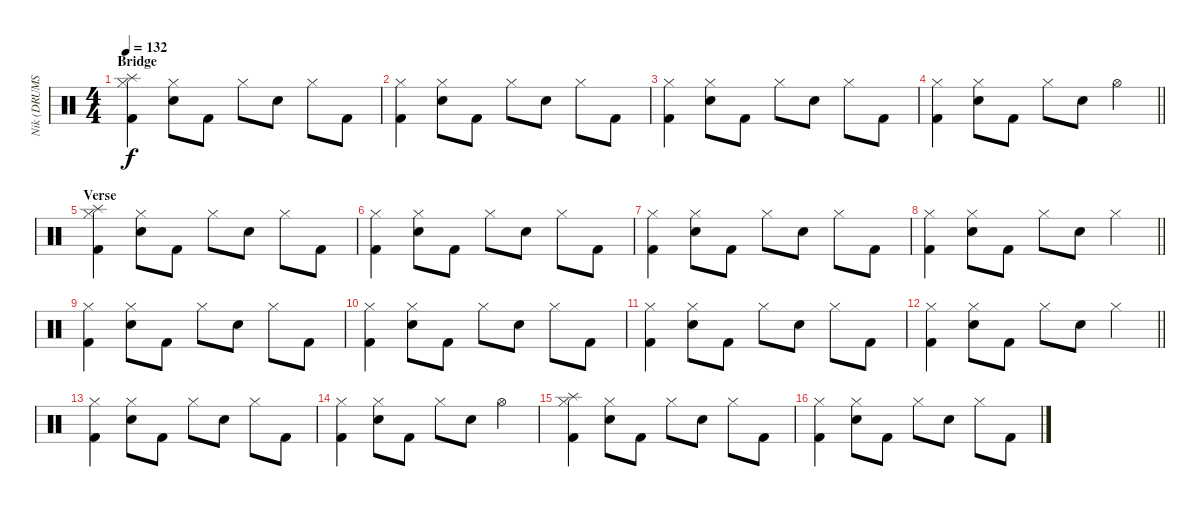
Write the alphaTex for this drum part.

\track ("Nik (DRUMS)" "Nik (DRUMS") {instrument percussion}
\staff {score}
\articulation defaults
\ts (4 4)
\section ("" "Bridge")
\tempo 132
\clef neutral
\ks c
("Splash (hit)" "Hi-Hat (closed)" "Kick (hit) 2").4{dy f} ("Hi-Hat (closed)" "Electric Snare (hit)").8 "Kick (hit) 2".8 "Hi-Hat (closed)".8 "Electric Snare (hit)".8 "Hi-Hat (closed)".8 "Kick (hit) 2".8 |
("Hi-Hat (closed)" "Kick (hit) 2").4 ("Hi-Hat (closed)" "Electric Snare (hit)").8 "Kick (hit) 2".8 "Hi-Hat (closed)".8 "Electric Snare (hit)".8 "Hi-Hat (closed)".8 "Kick (hit) 2".8 |
("Hi-Hat (closed)" "Kick (hit) 2").4 ("Hi-Hat (closed)" "Electric Snare (hit)").8 "Kick (hit) 2".8 "Hi-Hat (closed)".8 "Electric Snare (hit)".8 "Hi-Hat (closed)".8 "Kick (hit) 2".8 |
\barLineRight lightlight
("Hi-Hat (closed)" "Kick (hit) 2").4 ("Hi-Hat (closed)" "Electric Snare (hit)").8 "Kick (hit) 2".8 "Hi-Hat (closed)".8 "Electric Snare (hit)".8 "Hi-Hat (open)".4 |
\section ("" "Verse")
("Splash (hit)" "Hi-Hat (closed)" "Kick (hit) 2").4 ("Hi-Hat (closed)" "Electric Snare (hit)").8 "Kick (hit) 2".8 "Hi-Hat (closed)".8 "Electric Snare (hit)".8 "Hi-Hat (closed)".8 "Kick (hit) 2".8 |
("Hi-Hat (closed)" "Kick (hit) 2").4 ("Hi-Hat (closed)" "Electric Snare (hit)").8 "Kick (hit) 2".8 "Hi-Hat (closed)".8 "Electric Snare (hit)".8 "Hi-Hat (closed)".8 "Kick (hit) 2".8 |
("Hi-Hat (closed)" "Kick (hit) 2").4 ("Hi-Hat (closed)" "Electric Snare (hit)").8 "Kick (hit) 2".8 "Hi-Hat (closed)".8 "Electric Snare (hit)".8 "Hi-Hat (closed)".8 "Kick (hit) 2".8 |
\barLineRight lightlight
("Hi-Hat (closed)" "Kick (hit) 2").4 ("Hi-Hat (closed)" "Electric Snare (hit)").8 "Kick (hit) 2".8 "Hi-Hat (closed)".8 "Electric Snare (hit)".8 "Hi-Hat (closed)".4 |
("Hi-Hat (closed)" "Kick (hit) 2").4 ("Hi-Hat (closed)" "Electric Snare (hit)").8 "Kick (hit) 2".8 "Hi-Hat (closed)".8 "Electric Snare (hit)".8 "Hi-Hat (closed)".8 "Kick (hit) 2".8 |
("Hi-Hat (closed)" "Kick (hit) 2").4 ("Hi-Hat (closed)" "Electric Snare (hit)").8 "Kick (hit) 2".8 "Hi-Hat (closed)".8 "Electric Snare (hit)".8 "Hi-Hat (closed)".8 "Kick (hit) 2".8 |
("Hi-Hat (closed)" "Kick (hit) 2").4 ("Hi-Hat (closed)" "Electric Snare (hit)").8 "Kick (hit) 2".8 "Hi-Hat (closed)".8 "Electric Snare (hit)".8 "Hi-Hat (closed)".8 "Kick (hit) 2".8 |
\barLineRight lightlight
("Hi-Hat (closed)" "Kick (hit) 2").4 ("Hi-Hat (closed)" "Electric Snare (hit)").8 "Kick (hit) 2".8 "Hi-Hat (closed)".8 "Electric Snare (hit)".8 "Hi-Hat (closed)".4 |
("Hi-Hat (closed)" "Kick (hit) 2").4 ("Hi-Hat (closed)" "Electric Snare (hit)").8 "Kick (hit) 2".8 "Hi-Hat (closed)".8 "Electric Snare (hit)".8 "Hi-Hat (closed)".8 "Kick (hit) 2".8 |
("Hi-Hat (closed)" "Kick (hit) 2").4 ("Hi-Hat (closed)" "Electric Snare (hit)").8 "Kick (hit) 2".8 "Hi-Hat (closed)".8 "Electric Snare (hit)".8 "Hi-Hat (open)".4 |
("Splash (hit)" "Hi-Hat (closed)" "Kick (hit) 2").4 ("Hi-Hat (closed)" "Electric Snare (hit)").8 "Kick (hit) 2".8 "Hi-Hat (closed)".8 "Electric Snare (hit)".8 "Hi-Hat (closed)".8 "Kick (hit) 2".8 |
("Hi-Hat (closed)" "Kick (hit) 2").4 ("Hi-Hat (closed)" "Electric Snare (hit)").8 "Kick (hit) 2".8 "Hi-Hat (closed)".8 "Electric Snare (hit)".8 "Hi-Hat (closed)".8 "Kick (hit) 2".8
